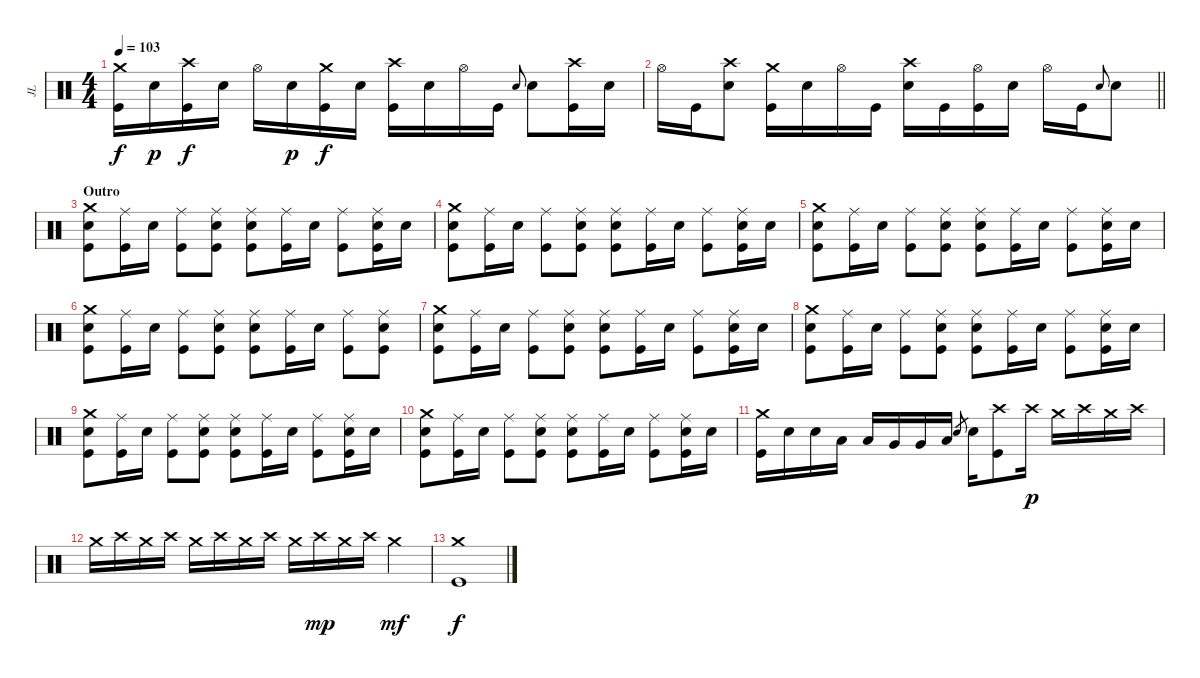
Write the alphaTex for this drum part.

\track ("JL" "JL") {instrument percussion}
\staff {score}
\articulation defaults
\ts (4 4)
\tempo 103
\clef neutral
\ks c
("Crash medium (hit)" "Kick (hit)").16{dy f} "Electric Snare (hit)".16{dy p} ("Crash high (hit)" "Kick (hit)").16{dy f} "Electric Snare (hit)".16 "Hi-Hat (open)".16 "Electric Snare (hit)".16{dy p} ("Crash medium (hit)" "Kick (hit)").16{dy f} "Electric Snare (hit)".16 ("Crash high (hit)" "Kick (hit)").16 "Electric Snare (hit)".16 "Hi-Hat (open)".16 "Kick (hit)".16 "Electric Snare (hit)".8{gr onbeat} "Electric Snare (hit)".8 ("Crash high (hit)" "Kick (hit)").16 "Electric Snare (hit)".16 |
\barLineRight lightlight "Hi-Hat (open)".16 "Kick (hit)".16
("Crash high (hit)" "Electric Snare (hit)").8 ("Crash medium (hit)" "Kick (hit)").16 "Electric Snare (hit)".16 "Hi-Hat (open)".16 "Kick (hit)".16 ("Crash high (hit)" "Electric Snare (hit)").16 "Kick (hit)".16 ("Hi-Hat (open)" "Kick (hit)").16 "Electric Snare (hit)".16 "Hi-Hat (open)".16 "Kick (hit)".16 "Electric Snare (hit)".8{gr onbeat} "Electric Snare (hit)".8 |
\section ("" "Outro")
("Crash medium (hit)" "Electric Snare (hit)" "Kick (hit)").8 ("Ride (middle)" "Kick (hit)").16 "Electric Snare (hit)".16 ("Ride (middle)" "Kick (hit)").8 ("Ride (middle)" "Electric Snare (hit)" "Kick (hit)").8 ("Ride (middle)" "Electric Snare (hit)" "Kick (hit)").8 ("Ride (middle)" "Kick (hit)").16 "Electric Snare (hit)".16 ("Ride (middle)" "Kick (hit)").8 ("Ride (middle)" "Electric Snare (hit)" "Kick (hit)").16 "Electric Snare (hit)".16 |
("Crash medium (hit)" "Electric Snare (hit)" "Kick (hit)").8 ("Ride (middle)" "Kick (hit)").16 "Electric Snare (hit)".16 ("Ride (middle)" "Kick (hit)").8 ("Ride (middle)" "Electric Snare (hit)" "Kick (hit)").8 ("Ride (middle)" "Electric Snare (hit)" "Kick (hit)").8 ("Ride (middle)" "Kick (hit)").16 "Electric Snare (hit)".16 ("Ride (middle)" "Kick (hit)").8 ("Ride (middle)" "Electric Snare (hit)" "Kick (hit)").16 "Electric Snare (hit)".16 |
("Crash medium (hit)" "Electric Snare (hit)" "Kick (hit)").8 ("Ride (middle)" "Kick (hit)").16 "Electric Snare (hit)".16 ("Ride (middle)" "Kick (hit)").8 ("Ride (middle)" "Electric Snare (hit)" "Kick (hit)").8 ("Ride (middle)" "Electric Snare (hit)" "Kick (hit)").8 ("Ride (middle)" "Kick (hit)").16 "Electric Snare (hit)".16 ("Ride (middle)" "Kick (hit)").8 ("Ride (middle)" "Electric Snare (hit)" "Kick (hit)").16 "Electric Snare (hit)".16 |
("Crash medium (hit)" "Electric Snare (hit)" "Kick (hit)").8 ("Ride (middle)" "Kick (hit)").16 "Electric Snare (hit)".16 ("Ride (middle)" "Kick (hit)").8 ("Ride (middle)" "Electric Snare (hit)" "Kick (hit)").8 ("Ride (middle)" "Electric Snare (hit)" "Kick (hit)").8 ("Ride (middle)" "Kick (hit)").16 "Electric Snare (hit)".16 ("Ride (middle)" "Kick (hit)").8 ("Ride (middle)" "Electric Snare (hit)" "Kick (hit)").8 |
("Crash medium (hit)" "Electric Snare (hit)" "Kick (hit)").8 ("Ride (middle)" "Kick (hit)").16 "Electric Snare (hit)".16 ("Ride (middle)" "Kick (hit)").8 ("Ride (middle)" "Electric Snare (hit)" "Kick (hit)").8 ("Ride (middle)" "Electric Snare (hit)" "Kick (hit)").8 ("Ride (middle)" "Kick (hit)").16 "Electric Snare (hit)".16 ("Ride (middle)" "Kick (hit)").8 ("Ride (middle)" "Electric Snare (hit)" "Kick (hit)").16 "Electric Snare (hit)".16 |
("Crash medium (hit)" "Electric Snare (hit)" "Kick (hit)").8 ("Ride (middle)" "Kick (hit)").16 "Electric Snare (hit)".16 ("Ride (middle)" "Kick (hit)").8 ("Ride (middle)" "Electric Snare (hit)" "Kick (hit)").8 ("Ride (middle)" "Electric Snare (hit)" "Kick (hit)").8 ("Ride (middle)" "Kick (hit)").16 "Electric Snare (hit)".16 ("Ride (middle)" "Kick (hit)").8 ("Ride (middle)" "Electric Snare (hit)" "Kick (hit)").16 "Electric Snare (hit)".16 |
("Crash medium (hit)" "Electric Snare (hit)" "Kick (hit)").8 ("Ride (middle)" "Kick (hit)").16 "Electric Snare (hit)".16 ("Ride (middle)" "Kick (hit)").8 ("Ride (middle)" "Electric Snare (hit)" "Kick (hit)").8 ("Ride (middle)" "Electric Snare (hit)" "Kick (hit)").8 ("Ride (middle)" "Kick (hit)").16 "Electric Snare (hit)".16 ("Ride (middle)" "Kick (hit)").8 ("Ride (middle)" "Electric Snare (hit)" "Kick (hit)").16 "Electric Snare (hit)".16 |
("Crash medium (hit)" "Electric Snare (hit)" "Kick (hit)").8 ("Ride (middle)" "Kick (hit)").16 "Electric Snare (hit)".16 ("Ride (middle)" "Kick (hit)").8 ("Ride (middle)" "Electric Snare (hit)" "Kick (hit)").8 ("Ride (middle)" "Electric Snare (hit)" "Kick (hit)").8 ("Ride (middle)" "Kick (hit)").16 "Electric Snare (hit)".16 ("Ride (middle)" "Kick (hit)").8 ("Ride (middle)" "Electric Snare (hit)" "Kick (hit)").16 "Electric Snare (hit)".16 |
("Crash medium (hit)" "Kick (hit)").16 "Electric Snare (hit)".16 "Electric Snare (hit)".16 "Low Tom (hit)".16 "Low Tom (hit)".16 "Very Low Tom (hit)".16 "Very Low Tom (hit)".16 "Low Floor Tom (hit)".16 "Electric Snare (hit)".8{gr} "Electric Snare (hit)".16 ("Crash high (hit)" "Kick (hit)").8 "Crash high (hit)".16{dy p} "Crash medium (hit)".16 "Crash high (hit)".16 "Crash medium (hit)".16 "Crash high (hit)".16 |
"Crash medium (hit)".16 "Crash high (hit)".16 "Crash medium (hit)".16 "Crash high (hit)".16 "Crash medium (hit)".16 "Crash high (hit)".16 "Crash medium (hit)".16 "Crash high (hit)".16 "Crash medium (hit)".16 "Crash high (hit)".16{dy mp} "Crash medium (hit)".16 "Crash high (hit)".16 "Crash medium (hit)".4{dy mf} |
("Crash medium (hit)" "Kick (hit)").1{dy f}
